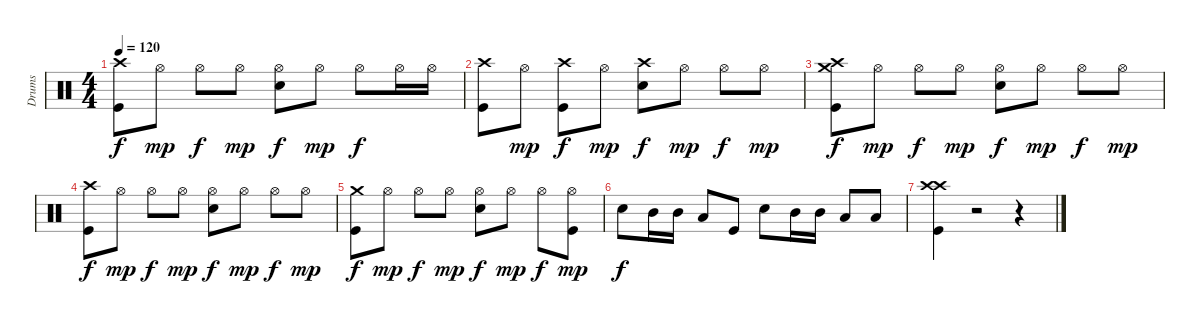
\track ("Drums" "Drums") {instrument percussion}
\staff {score}
\articulation defaults
\ts (4 4)
\tempo 120
\clef neutral
\ks c
("Kick (hit)" "Crash high (hit)").8{dy f} "Hi-Hat (open)".8{dy mp} "Hi-Hat (open)".8{dy f} "Hi-Hat (open)".8{dy mp} ("Snare (hit) 2" "Hi-Hat (open)").8{dy f} "Hi-Hat (open)".8{dy mp} "Hi-Hat (open)".8{dy f} "Hi-Hat (open)".16 "Hi-Hat (open)".16 |
("Kick (hit)" "Crash high (hit)").8 "Hi-Hat (open)".8{dy mp} ("Kick (hit)" "Crash high (hit)").8{dy f} "Hi-Hat (open)".8{dy mp} ("Snare (hit) 2" "Crash high (hit)").8{dy f} "Hi-Hat (open)".8{dy mp} "Hi-Hat (open)".8{dy f} "Hi-Hat (open)".8{dy mp} |
("Kick (hit)" "Crash high (hit)" "Crash medium (hit)").8{dy f} "Hi-Hat (open)".8{dy mp} "Hi-Hat (open)".8{dy f} "Hi-Hat (open)".8{dy mp} ("Snare (hit) 2" "Hi-Hat (open)").8{dy f} "Hi-Hat (open)".8{dy mp} "Hi-Hat (open)".8{dy f} "Hi-Hat (open)".8{dy mp} |
("Kick (hit)" "Crash high (hit)").8{dy f} "Hi-Hat (open)".8{dy mp} "Hi-Hat (open)".8{dy f} "Hi-Hat (open)".8{dy mp} ("Snare (hit) 2" "Hi-Hat (open)").8{dy f} "Hi-Hat (open)".8{dy mp} "Hi-Hat (open)".8{dy f} "Hi-Hat (open)".8{dy mp} |
("Kick (hit)" "Crash medium (hit)").8{dy f} "Hi-Hat (open)".8{dy mp} "Hi-Hat (open)".8{dy f} "Hi-Hat (open)".8{dy mp} ("Snare (hit) 2" "Hi-Hat (open)").8{dy f} "Hi-Hat (open)".8{dy mp} "Hi-Hat (open)".8{dy f} ("Kick (hit)" "Hi-Hat (open)").8{dy mp} |
"Snare (hit) 2".8{dy f} "Mid Tom (hit)".16 "Mid Tom (hit)".16 "Low Tom (hit)".8 "Kick (hit)".8 "Snare (hit) 2".8 "Mid Tom (hit)".16 "Mid Tom (hit)".16 "Low Tom (hit)".8 "Low Floor Tom (hit)".8 |
("Kick (hit)" "Crash high (hit)" "Crash high (hit)").4 r.2 r.4
